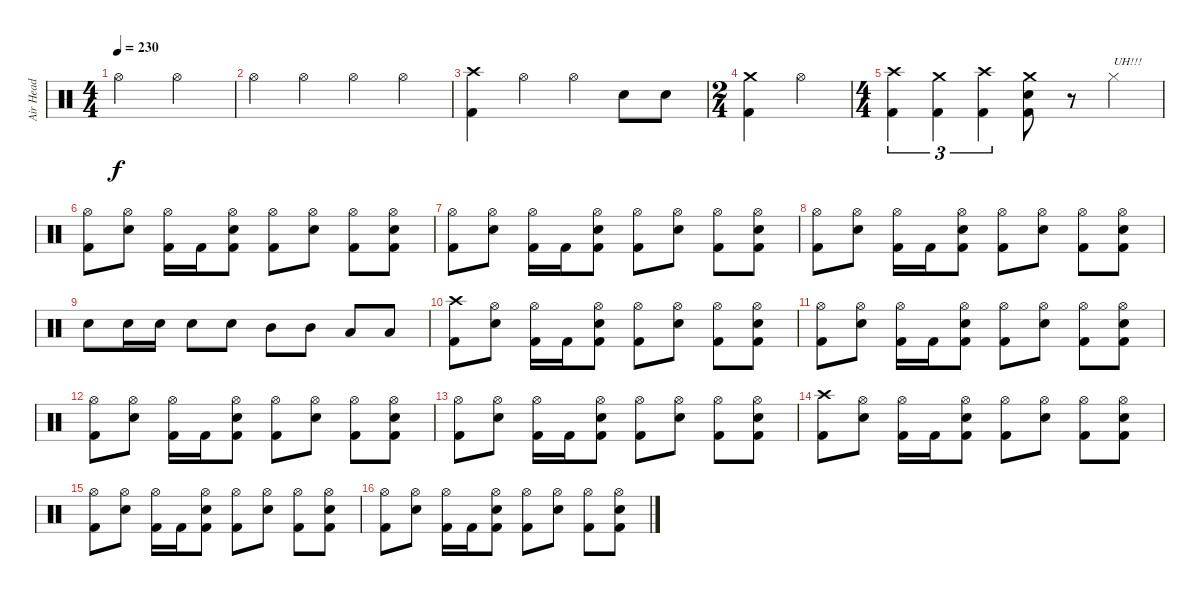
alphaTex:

\track ("Air Head" "Air Head") {instrument percussion}
\staff {score}
\articulation defaults
\ts (4 4)
\tempo 230
\clef neutral
\ks c "Hi-Hat (open)".2{dy f} "Hi-Hat (open)".2
|
"Hi-Hat (open)".4 "Hi-Hat (open)".4 "Hi-Hat (open)".4 "Hi-Hat (open)".4 |
("Crash high (hit)" "Kick (hit) 2").4 "Hi-Hat (open)".4 "Hi-Hat (open)".4 "Snare (hit) 2".8 "Snare (hit) 2".8 |
\ts (2 4)
("Crash medium (hit)" "Kick (hit) 2").4 "Hi-Hat (open)".4 |
\ts (4 4)
("Crash high (hit)" "Kick (hit) 2").4{tu (3 2)} ("Crash medium (hit)" "Kick (hit) 2").4{tu (3 2)} ("Crash high (hit)" "Kick (hit) 2").4{tu (3 2)} ("Crash medium (hit)" "Snare (hit) 2" "Kick (hit) 2").8 r.8 "Hi-Hat (closed)".4{txt "UH!!!"} |
("Hi-Hat (open)" "Kick (hit) 2").8 ("Hi-Hat (open)" "Snare (hit) 2").8 ("Hi-Hat (open)" "Kick (hit) 2").16 "Kick (hit) 2".16 ("Hi-Hat (open)" "Snare (hit) 2" "Kick (hit) 2").8 ("Hi-Hat (open)" "Kick (hit) 2").8 ("Hi-Hat (open)" "Snare (hit) 2").8 ("Hi-Hat (open)" "Kick (hit) 2").8 ("Hi-Hat (open)" "Snare (hit) 2" "Kick (hit) 2").8 |
("Hi-Hat (open)" "Kick (hit) 2").8 ("Hi-Hat (open)" "Snare (hit) 2").8 ("Hi-Hat (open)" "Kick (hit) 2").16 "Kick (hit) 2".16 ("Hi-Hat (open)" "Snare (hit) 2" "Kick (hit) 2").8 ("Hi-Hat (open)" "Kick (hit) 2").8 ("Hi-Hat (open)" "Snare (hit) 2").8 ("Hi-Hat (open)" "Kick (hit) 2").8 ("Hi-Hat (open)" "Snare (hit) 2" "Kick (hit) 2").8 |
("Hi-Hat (open)" "Kick (hit) 2").8 ("Hi-Hat (open)" "Snare (hit) 2").8 ("Hi-Hat (open)" "Kick (hit) 2").16 "Kick (hit) 2".16 ("Hi-Hat (open)" "Snare (hit) 2" "Kick (hit) 2").8 ("Hi-Hat (open)" "Kick (hit) 2").8 ("Hi-Hat (open)" "Snare (hit) 2").8 ("Hi-Hat (open)" "Kick (hit) 2").8 ("Hi-Hat (open)" "Snare (hit) 2" "Kick (hit) 2").8 |
"Snare (hit) 2".8 "Snare (hit) 2".16 "Snare (hit) 2".16 "Snare (hit) 2".8 "Snare (hit) 2".8 "Mid Tom (hit)".8 "Mid Tom (hit)".8 "Low Tom (hit)".8 "Low Tom (hit)".8 |
("Crash high (hit)" "Kick (hit) 2").8 ("Hi-Hat (open)" "Snare (hit) 2").8 ("Hi-Hat (open)" "Kick (hit) 2").16 "Kick (hit) 2".16 ("Hi-Hat (open)" "Snare (hit) 2" "Kick (hit) 2").8 ("Hi-Hat (open)" "Kick (hit) 2").8 ("Hi-Hat (open)" "Snare (hit) 2").8 ("Hi-Hat (open)" "Kick (hit) 2").8 ("Hi-Hat (open)" "Snare (hit) 2" "Kick (hit) 2").8 |
("Hi-Hat (open)" "Kick (hit) 2").8 ("Hi-Hat (open)" "Snare (hit) 2").8 ("Hi-Hat (open)" "Kick (hit) 2").16 "Kick (hit) 2".16 ("Hi-Hat (open)" "Snare (hit) 2" "Kick (hit) 2").8 ("Hi-Hat (open)" "Kick (hit) 2").8 ("Hi-Hat (open)" "Snare (hit) 2").8 ("Hi-Hat (open)" "Kick (hit) 2").8 ("Hi-Hat (open)" "Snare (hit) 2" "Kick (hit) 2").8 |
("Hi-Hat (open)" "Kick (hit) 2").8 ("Hi-Hat (open)" "Snare (hit) 2").8 ("Hi-Hat (open)" "Kick (hit) 2").16 "Kick (hit) 2".16 ("Hi-Hat (open)" "Snare (hit) 2" "Kick (hit) 2").8 ("Hi-Hat (open)" "Kick (hit) 2").8 ("Hi-Hat (open)" "Snare (hit) 2").8 ("Hi-Hat (open)" "Kick (hit) 2").8 ("Hi-Hat (open)" "Snare (hit) 2" "Kick (hit) 2").8 |
("Hi-Hat (open)" "Kick (hit) 2").8 ("Hi-Hat (open)" "Snare (hit) 2").8 ("Hi-Hat (open)" "Kick (hit) 2").16 "Kick (hit) 2".16 ("Hi-Hat (open)" "Snare (hit) 2" "Kick (hit) 2").8 ("Hi-Hat (open)" "Kick (hit) 2").8 ("Hi-Hat (open)" "Snare (hit) 2").8 ("Hi-Hat (open)" "Kick (hit) 2").8 ("Hi-Hat (open)" "Snare (hit) 2" "Kick (hit) 2").8 |
("Crash high (hit)" "Kick (hit) 2").8 ("Hi-Hat (open)" "Snare (hit) 2").8 ("Hi-Hat (open)" "Kick (hit) 2").16 "Kick (hit) 2".16 ("Hi-Hat (open)" "Snare (hit) 2" "Kick (hit) 2").8 ("Hi-Hat (open)" "Kick (hit) 2").8 ("Hi-Hat (open)" "Snare (hit) 2").8 ("Hi-Hat (open)" "Kick (hit) 2").8 ("Hi-Hat (open)" "Snare (hit) 2" "Kick (hit) 2").8 |
("Hi-Hat (open)" "Kick (hit) 2").8 ("Hi-Hat (open)" "Snare (hit) 2").8 ("Hi-Hat (open)" "Kick (hit) 2").16 "Kick (hit) 2".16 ("Hi-Hat (open)" "Snare (hit) 2" "Kick (hit) 2").8 ("Hi-Hat (open)" "Kick (hit) 2").8 ("Hi-Hat (open)" "Snare (hit) 2").8 ("Hi-Hat (open)" "Kick (hit) 2").8 ("Hi-Hat (open)" "Snare (hit) 2" "Kick (hit) 2").8 |
("Hi-Hat (open)" "Kick (hit) 2").8 ("Hi-Hat (open)" "Snare (hit) 2").8 ("Hi-Hat (open)" "Kick (hit) 2").16 "Kick (hit) 2".16 ("Hi-Hat (open)" "Snare (hit) 2" "Kick (hit) 2").8 ("Hi-Hat (open)" "Kick (hit) 2").8 ("Hi-Hat (open)" "Snare (hit) 2").8 ("Hi-Hat (open)" "Kick (hit) 2").8 ("Hi-Hat (open)" "Snare (hit) 2" "Kick (hit) 2").8
